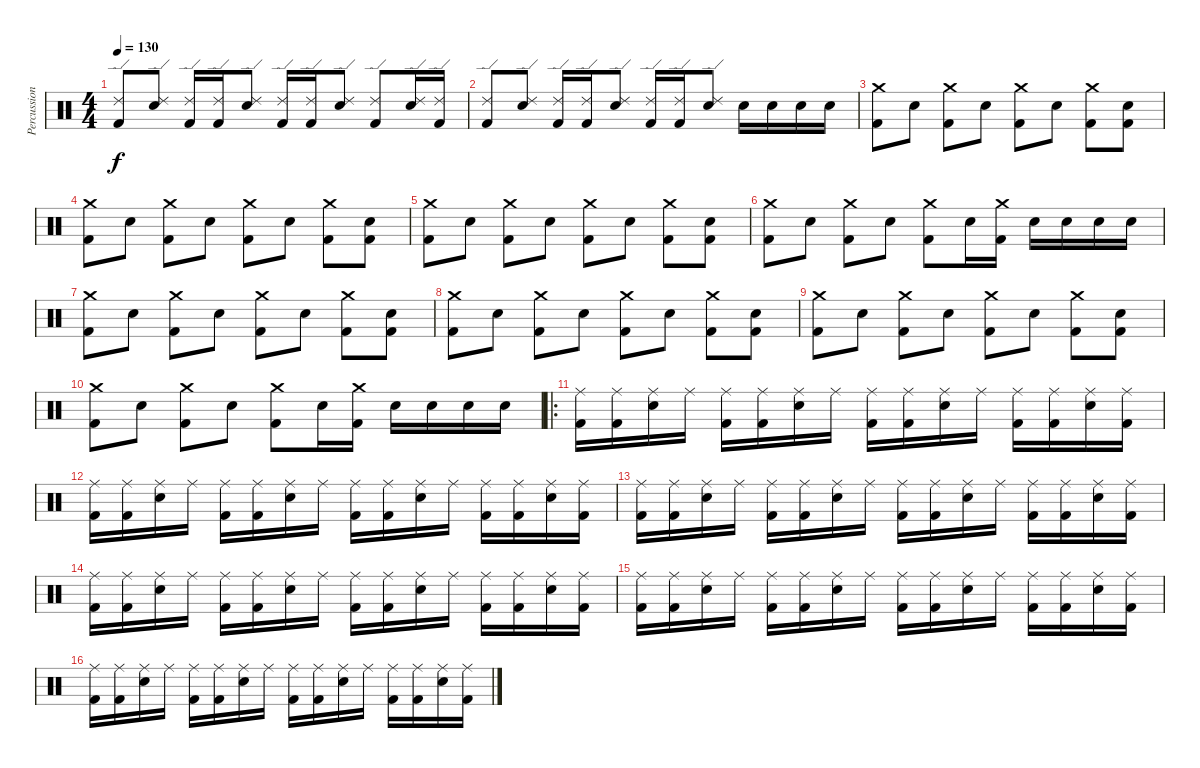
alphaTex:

\track ("Percussion" "Percussion") {instrument percussion}
\staff {score}
\articulation defaults
\ts (4 4)
\tempo 130
\clef neutral
\ks c
("Kick (hit) 2" "Ride (edge) 2").8{dy f} ("Snare (hit) 2" "Ride (edge) 2").8 ("Kick (hit) 2" "Ride (edge) 2").16 ("Kick (hit) 2" "Ride (edge) 2").16 ("Snare (hit) 2" "Ride (edge) 2").8 ("Kick (hit) 2" "Ride (edge) 2").16 ("Kick (hit) 2" "Ride (edge) 2").16 ("Snare (hit) 2" "Ride (edge) 2").8 ("Kick (hit) 2" "Ride (edge) 2").8 ("Snare (hit) 2" "Ride (edge) 2").16 ("Kick (hit) 2" "Ride (edge) 2").16 |
("Kick (hit) 2" "Ride (edge) 2").8 ("Snare (hit) 2" "Ride (edge) 2").8 ("Kick (hit) 2" "Ride (edge) 2").16 ("Kick (hit) 2" "Ride (edge) 2").16 ("Snare (hit) 2" "Ride (edge) 2").8 ("Kick (hit) 2" "Ride (edge) 2").16 ("Kick (hit) 2" "Ride (edge) 2").16 ("Snare (hit) 2" "Ride (edge) 2").8 "Snare (hit) 2".16 "Snare (hit) 2".16 "Snare (hit) 2".16 "Snare (hit) 2".16 |
("Kick (hit) 2" "Crash medium (hit)").8 "Snare (hit) 2".8 ("Kick (hit) 2" "Crash medium (hit)").8 "Snare (hit) 2".8 ("Kick (hit) 2" "Crash medium (hit)").8 "Snare (hit) 2".8 ("Kick (hit) 2" "Crash medium (hit)").8 ("Kick (hit) 2" "Snare (hit) 2").8 |
("Kick (hit) 2" "Crash medium (hit)").8 "Snare (hit) 2".8 ("Kick (hit) 2" "Crash medium (hit)").8 "Snare (hit) 2".8 ("Kick (hit) 2" "Crash medium (hit)").8 "Snare (hit) 2".8 ("Kick (hit) 2" "Crash medium (hit)").8 ("Kick (hit) 2" "Snare (hit) 2").8 |
("Kick (hit) 2" "Crash medium (hit)").8 "Snare (hit) 2".8 ("Kick (hit) 2" "Crash medium (hit)").8 "Snare (hit) 2".8 ("Kick (hit) 2" "Crash medium (hit)").8 "Snare (hit) 2".8 ("Kick (hit) 2" "Crash medium (hit)").8 ("Kick (hit) 2" "Snare (hit) 2").8 |
("Kick (hit) 2" "Crash medium (hit)").8 "Snare (hit) 2".8 ("Kick (hit) 2" "Crash medium (hit)").8 "Snare (hit) 2".8 ("Kick (hit) 2" "Crash medium (hit)").8 "Snare (hit) 2".16 ("Kick (hit) 2" "Crash medium (hit)").16 "Snare (hit) 2".16 "Snare (hit) 2".16 "Snare (hit) 2".16 "Snare (hit) 2".16 |
("Kick (hit) 2" "Crash medium (hit)").8 "Snare (hit) 2".8 ("Kick (hit) 2" "Crash medium (hit)").8 "Snare (hit) 2".8 ("Kick (hit) 2" "Crash medium (hit)").8 "Snare (hit) 2".8 ("Kick (hit) 2" "Crash medium (hit)").8 ("Kick (hit) 2" "Snare (hit) 2").8 |
("Kick (hit) 2" "Crash medium (hit)").8 "Snare (hit) 2".8 ("Kick (hit) 2" "Crash medium (hit)").8 "Snare (hit) 2".8 ("Kick (hit) 2" "Crash medium (hit)").8 "Snare (hit) 2".8 ("Kick (hit) 2" "Crash medium (hit)").8 ("Kick (hit) 2" "Snare (hit) 2").8 |
("Kick (hit) 2" "Crash medium (hit)").8 "Snare (hit) 2".8 ("Kick (hit) 2" "Crash medium (hit)").8 "Snare (hit) 2".8 ("Kick (hit) 2" "Crash medium (hit)").8 "Snare (hit) 2".8 ("Kick (hit) 2" "Crash medium (hit)").8 ("Kick (hit) 2" "Snare (hit) 2").8 |
("Kick (hit) 2" "Crash medium (hit)").8 "Snare (hit) 2".8 ("Kick (hit) 2" "Crash medium (hit)").8 "Snare (hit) 2".8 ("Kick (hit) 2" "Crash medium (hit)").8 "Snare (hit) 2".16 ("Kick (hit) 2" "Crash medium (hit)").16 "Snare (hit) 2".16 "Snare (hit) 2".16 "Snare (hit) 2".16 "Snare (hit) 2".16 |
\ro
("Kick (hit) 2" "Ride (middle)").16 ("Kick (hit) 2" "Ride (middle)").16 ("Snare (hit) 2" "Ride (middle)").16 "Ride (middle)".16 ("Kick (hit) 2" "Ride (middle)").16 ("Kick (hit) 2" "Ride (middle)").16 ("Snare (hit) 2" "Ride (middle)").16 "Ride (middle)".16 ("Kick (hit) 2" "Ride (middle)").16 ("Kick (hit) 2" "Ride (middle)").16 ("Snare (hit) 2" "Ride (middle)").16 "Ride (middle)".16 ("Kick (hit) 2" "Ride (middle)").16 ("Kick (hit) 2" "Ride (middle)").16 ("Snare (hit) 2" "Ride (middle)").16 ("Kick (hit) 2" "Ride (middle)").16 |
("Kick (hit) 2" "Ride (middle)").16 ("Kick (hit) 2" "Ride (middle)").16 ("Snare (hit) 2" "Ride (middle)").16 "Ride (middle)".16 ("Kick (hit) 2" "Ride (middle)").16 ("Kick (hit) 2" "Ride (middle)").16 ("Snare (hit) 2" "Ride (middle)").16 "Ride (middle)".16 ("Kick (hit) 2" "Ride (middle)").16 ("Kick (hit) 2" "Ride (middle)").16 ("Snare (hit) 2" "Ride (middle)").16 "Ride (middle)".16 ("Kick (hit) 2" "Ride (middle)").16 ("Kick (hit) 2" "Ride (middle)").16 ("Snare (hit) 2" "Ride (middle)").16 ("Kick (hit) 2" "Ride (middle)").16 |
("Kick (hit) 2" "Ride (middle)").16 ("Kick (hit) 2" "Ride (middle)").16 ("Snare (hit) 2" "Ride (middle)").16 "Ride (middle)".16 ("Kick (hit) 2" "Ride (middle)").16 ("Kick (hit) 2" "Ride (middle)").16 ("Snare (hit) 2" "Ride (middle)").16 "Ride (middle)".16 ("Kick (hit) 2" "Ride (middle)").16 ("Kick (hit) 2" "Ride (middle)").16 ("Snare (hit) 2" "Ride (middle)").16 "Ride (middle)".16 ("Kick (hit) 2" "Ride (middle)").16 ("Kick (hit) 2" "Ride (middle)").16 ("Snare (hit) 2" "Ride (middle)").16 ("Kick (hit) 2" "Ride (middle)").16 |
("Kick (hit) 2" "Ride (middle)").16 ("Kick (hit) 2" "Ride (middle)").16 ("Snare (hit) 2" "Ride (middle)").16 "Ride (middle)".16 ("Kick (hit) 2" "Ride (middle)").16 ("Kick (hit) 2" "Ride (middle)").16 ("Snare (hit) 2" "Ride (middle)").16 "Ride (middle)".16 ("Kick (hit) 2" "Ride (middle)").16 ("Kick (hit) 2" "Ride (middle)").16 ("Snare (hit) 2" "Ride (middle)").16 "Ride (middle)".16 ("Kick (hit) 2" "Ride (middle)").16 ("Kick (hit) 2" "Ride (middle)").16 ("Snare (hit) 2" "Ride (middle)").16 ("Kick (hit) 2" "Ride (middle)").16 |
("Kick (hit) 2" "Ride (middle)").16 ("Kick (hit) 2" "Ride (middle)").16 ("Snare (hit) 2" "Ride (middle)").16 "Ride (middle)".16 ("Kick (hit) 2" "Ride (middle)").16 ("Kick (hit) 2" "Ride (middle)").16 ("Snare (hit) 2" "Ride (middle)").16 "Ride (middle)".16 ("Kick (hit) 2" "Ride (middle)").16 ("Kick (hit) 2" "Ride (middle)").16 ("Snare (hit) 2" "Ride (middle)").16 "Ride (middle)".16 ("Kick (hit) 2" "Ride (middle)").16 ("Kick (hit) 2" "Ride (middle)").16 ("Snare (hit) 2" "Ride (middle)").16 ("Kick (hit) 2" "Ride (middle)").16 |
("Kick (hit) 2" "Ride (middle)").16 ("Kick (hit) 2" "Ride (middle)").16 ("Snare (hit) 2" "Ride (middle)").16 "Ride (middle)".16 ("Kick (hit) 2" "Ride (middle)").16 ("Kick (hit) 2" "Ride (middle)").16 ("Snare (hit) 2" "Ride (middle)").16 "Ride (middle)".16 ("Kick (hit) 2" "Ride (middle)").16 ("Kick (hit) 2" "Ride (middle)").16 ("Snare (hit) 2" "Ride (middle)").16 "Ride (middle)".16 ("Kick (hit) 2" "Ride (middle)").16 ("Kick (hit) 2" "Ride (middle)").16 ("Snare (hit) 2" "Ride (middle)").16 ("Kick (hit) 2" "Ride (middle)").16
